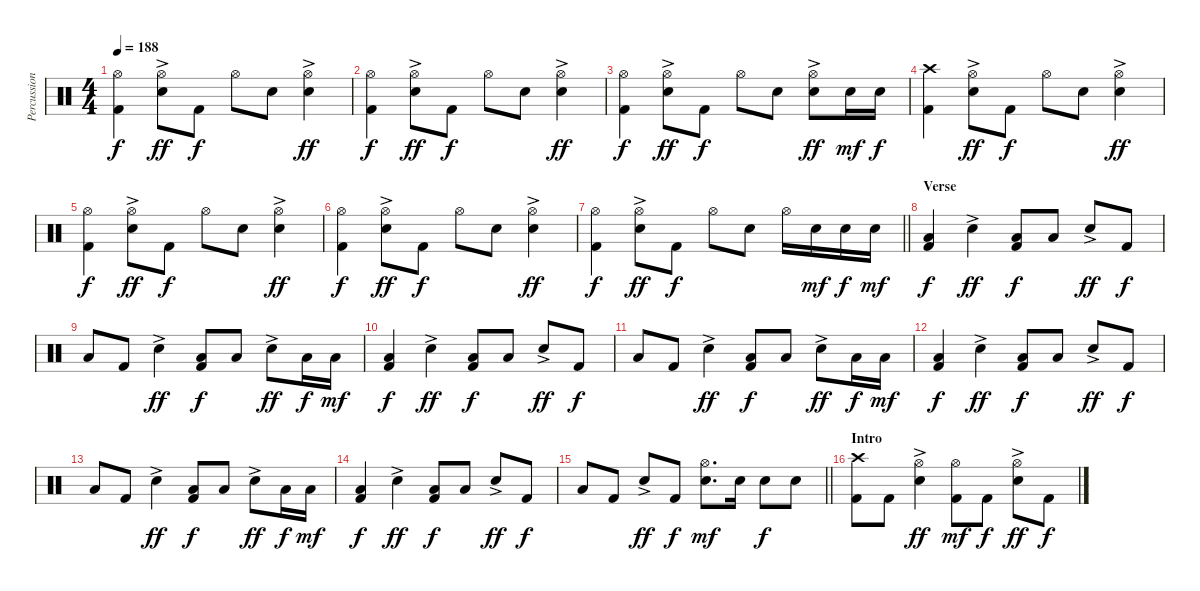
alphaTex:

\track ("Percussion" "Percussion") {instrument percussion}
\staff {score}
\articulation defaults
\ts (4 4)
\tempo 188
\clef neutral
\ks c
("Hi-Hat (open)" "Kick (hit) 2").4{dy f} ("Hi-Hat (open)" "Electric Snare (hit)"{ac}).8{dy ff} "Kick (hit) 2".8{dy f} "Hi-Hat (open)".8 "Electric Snare (hit)".8 ("Hi-Hat (open)" "Electric Snare (hit)"{ac}).4{dy ff} |
("Hi-Hat (open)" "Kick (hit) 2").4{dy f} ("Hi-Hat (open)" "Electric Snare (hit)"{ac}).8{dy ff} "Kick (hit) 2".8{dy f} "Hi-Hat (open)".8 "Electric Snare (hit)".8 ("Hi-Hat (open)" "Electric Snare (hit)"{ac}).4{dy ff} |
("Hi-Hat (open)" "Kick (hit) 2").4{dy f} ("Hi-Hat (open)" "Electric Snare (hit)"{ac}).8{dy ff} "Kick (hit) 2".8{dy f} "Hi-Hat (open)".8 "Electric Snare (hit)".8 ("Hi-Hat (open)" "Electric Snare (hit)"{ac}).8{dy ff} "Electric Snare (hit)".16{dy mf} "Electric Snare (hit)".16{dy f} |
("Crash high (hit)" "Kick (hit) 2").4 ("Hi-Hat (open)" "Electric Snare (hit)"{ac}).8{dy ff} "Kick (hit) 2".8{dy f} "Hi-Hat (open)".8 "Electric Snare (hit)".8 ("Hi-Hat (open)" "Electric Snare (hit)"{ac}).4{dy ff} |
("Hi-Hat (open)" "Kick (hit) 2").4{dy f} ("Hi-Hat (open)" "Electric Snare (hit)"{ac}).8{dy ff} "Kick (hit) 2".8{dy f} "Hi-Hat (open)".8 "Electric Snare (hit)".8 ("Hi-Hat (open)" "Electric Snare (hit)"{ac}).4{dy ff} |
("Hi-Hat (open)" "Kick (hit) 2").4{dy f} ("Hi-Hat (open)" "Electric Snare (hit)"{ac}).8{dy ff} "Kick (hit) 2".8{dy f} "Hi-Hat (open)".8 "Electric Snare (hit)".8 ("Hi-Hat (open)" "Electric Snare (hit)"{ac}).4{dy ff} |
\barLineRight lightlight
("Hi-Hat (open)" "Kick (hit) 2").4{dy f} ("Hi-Hat (open)" "Electric Snare (hit)"{ac}).8{dy ff} "Kick (hit) 2".8{dy f} "Hi-Hat (open)".8 "Electric Snare (hit)".8 "Hi-Hat (open)".16 "Electric Snare (hit)".16{dy mf} "Electric Snare (hit)".16{dy f} "Electric Snare (hit)".16{dy mf} |
\section ("" "Verse")
("Low Tom (hit)" "Kick (hit) 2").4{dy f} "Electric Snare (hit)"{ac}.4{dy ff} ("Low Tom (hit)" "Kick (hit) 2").8{dy f} "Low Tom (hit)".8 "Electric Snare (hit)"{ac}.8{dy ff} "Kick (hit) 2".8{dy f} |
"Low Tom (hit)".8 "Kick (hit) 2".8 "Electric Snare (hit)"{ac}.4{dy ff} ("Low Tom (hit)" "Kick (hit) 2").8{dy f} "Low Tom (hit)".8 "Electric Snare (hit)"{ac}.8{dy ff} "Low Tom (hit)".16{dy f} "Low Tom (hit)".16{dy mf} |
("Low Tom (hit)" "Kick (hit) 2").4{dy f} "Electric Snare (hit)"{ac}.4{dy ff} ("Low Tom (hit)" "Kick (hit) 2").8{dy f} "Low Tom (hit)".8 "Electric Snare (hit)"{ac}.8{dy ff} "Kick (hit) 2".8{dy f} |
"Low Tom (hit)".8 "Kick (hit) 2".8 "Electric Snare (hit)"{ac}.4{dy ff} ("Low Tom (hit)" "Kick (hit) 2").8{dy f} "Low Tom (hit)".8 "Electric Snare (hit)"{ac}.8{dy ff} "Low Tom (hit)".16{dy f} "Low Tom (hit)".16{dy mf} |
("Low Tom (hit)" "Kick (hit) 2").4{dy f} "Electric Snare (hit)"{ac}.4{dy ff} ("Low Tom (hit)" "Kick (hit) 2").8{dy f} "Low Tom (hit)".8 "Electric Snare (hit)"{ac}.8{dy ff} "Kick (hit) 2".8{dy f} |
"Low Tom (hit)".8 "Kick (hit) 2".8 "Electric Snare (hit)"{ac}.4{dy ff} ("Low Tom (hit)" "Kick (hit) 2").8{dy f} "Low Tom (hit)".8 "Electric Snare (hit)"{ac}.8{dy ff} "Low Tom (hit)".16{dy f} "Low Tom (hit)".16{dy mf} |
("Low Tom (hit)" "Kick (hit) 2").4{dy f} "Electric Snare (hit)"{ac}.4{dy ff} ("Low Tom (hit)" "Kick (hit) 2").8{dy f} "Low Tom (hit)".8 "Electric Snare (hit)"{ac}.8{dy ff} "Kick (hit) 2".8{dy f} |
\barLineRight lightlight "Low Tom (hit)".8 "Kick (hit) 2".8 "Electric Snare (hit)"{ac}.8{dy ff} "Kick (hit) 2".8{dy f}
("Hi-Hat (open)" "Electric Snare (hit)").8{d dy mf} "Electric Snare (hit)".16 "Electric Snare (hit)".8{dy f} "Electric Snare (hit)".8 |
\section ("" "Intro")
("Crash high (hit)" "Kick (hit) 2").8 "Kick (hit) 2".8 ("Hi-Hat (open)" "Electric Snare (hit)"{ac}).4{dy ff} ("Hi-Hat (open)" "Kick (hit) 2").8{dy mf} "Kick (hit) 2".8{dy f} ("Hi-Hat (open)" "Electric Snare (hit)"{ac}).8{dy ff} "Kick (hit) 2".8{dy f}
